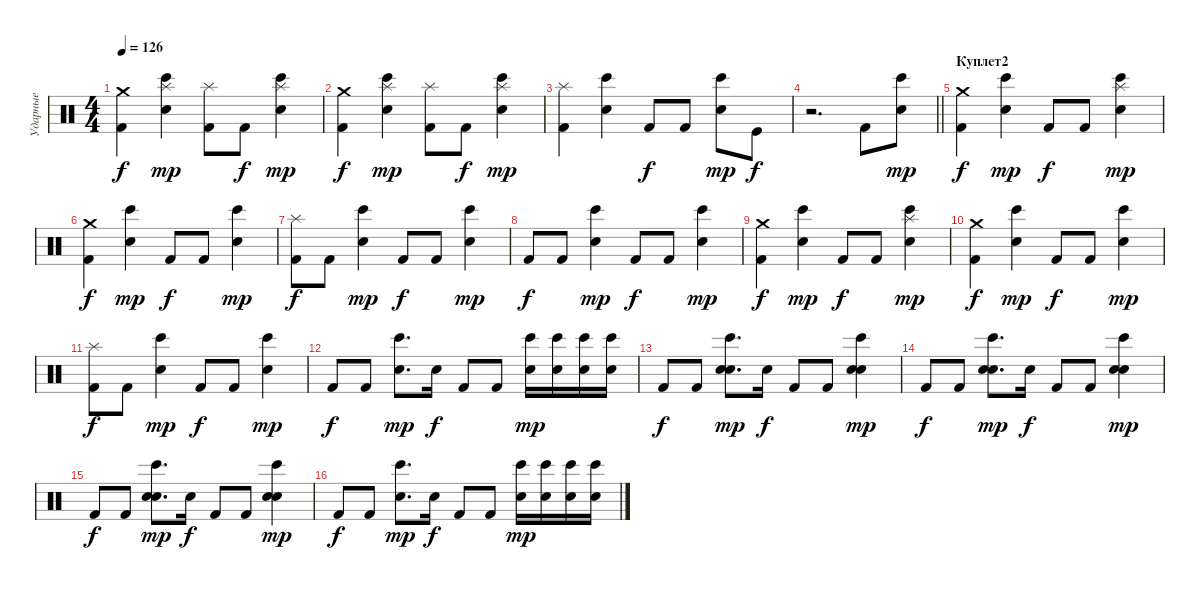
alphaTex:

\track ("Ударные" "Ударные") {instrument percussion}
\staff {score}
\articulation defaults
\ts (4 4)
\tempo 126
\clef neutral
\ks c
("Crash medium (hit)" "Kick (hit) 2").4{dy f} ("Splash (hit)" "Electric Snare (hit)" "Bongo High (hit)").4{dy mp} ("Splash (hit)" "Kick (hit) 2").8 "Kick (hit) 2".8{dy f} ("Splash (hit)" "Electric Snare (hit)" "Bongo High (hit)").4{dy mp} |
("Crash medium (hit)" "Kick (hit) 2").4{dy f} ("Splash (hit)" "Electric Snare (hit)" "Bongo High (hit)").4{dy mp} ("Splash (hit)" "Kick (hit) 2").8 "Kick (hit) 2".8{dy f} ("Splash (hit)" "Electric Snare (hit)" "Bongo High (hit)").4{dy mp} |
("Splash (hit)" "Kick (hit) 2").4 ("Electric Snare (hit)" "Bongo High (hit)").4 "Kick (hit) 2".8{dy f} "Kick (hit) 2".8 ("Electric Snare (hit)" "Bongo High (hit)").8{dy mp} "Kick (hit)".8{dy f} |
\barLineRight lightlight
r.2{d} "Kick (hit) 2".8 ("Electric Snare (hit)" "Bongo High (hit)").8{dy mp} |
\section ("" "Куплет2")
("Crash medium (hit)" "Kick (hit) 2").4{dy f} ("Electric Snare (hit)" "Bongo High (hit)").4{dy mp} "Kick (hit) 2".8{dy f} "Kick (hit) 2".8 ("Splash (hit)" "Electric Snare (hit)" "Bongo High (hit)").4{dy mp} |
("Crash medium (hit)" "Kick (hit) 2").4{dy f} ("Electric Snare (hit)" "Bongo High (hit)").4{dy mp} "Kick (hit) 2".8{dy f} "Kick (hit) 2".8 ("Electric Snare (hit)" "Bongo High (hit)").4{dy mp} |
("Splash (hit)" "Kick (hit) 2").8{dy f} "Kick (hit) 2".8 ("Electric Snare (hit)" "Bongo High (hit)").4{dy mp} "Kick (hit) 2".8{dy f} "Kick (hit) 2".8 ("Electric Snare (hit)" "Bongo High (hit)").4{dy mp} |
"Kick (hit) 2".8{dy f} "Kick (hit) 2".8 ("Electric Snare (hit)" "Bongo High (hit)").4{dy mp} "Kick (hit) 2".8{dy f} "Kick (hit) 2".8 ("Electric Snare (hit)" "Bongo High (hit)").4{dy mp} |
("Crash medium (hit)" "Kick (hit) 2").4{dy f} ("Electric Snare (hit)" "Bongo High (hit)").4{dy mp} "Kick (hit) 2".8{dy f} "Kick (hit) 2".8 ("Splash (hit)" "Electric Snare (hit)" "Bongo High (hit)").4{dy mp} |
("Crash medium (hit)" "Kick (hit) 2").4{dy f} ("Electric Snare (hit)" "Bongo High (hit)").4{dy mp} "Kick (hit) 2".8{dy f} "Kick (hit) 2".8 ("Electric Snare (hit)" "Bongo High (hit)").4{dy mp} |
("Splash (hit)" "Kick (hit) 2").8{dy f} "Kick (hit) 2".8 ("Electric Snare (hit)" "Bongo High (hit)").4{dy mp} "Kick (hit) 2".8{dy f} "Kick (hit) 2".8 ("Electric Snare (hit)" "Bongo High (hit)").4{dy mp} |
"Kick (hit) 2".8{dy f} "Kick (hit) 2".8 ("Electric Snare (hit)" "Bongo High (hit)").8{d dy mp} "Electric Snare (hit)".16{dy f} "Kick (hit) 2".8 "Kick (hit) 2".8 ("Electric Snare (hit)" "Bongo High (hit)").16{dy mp} ("Electric Snare (hit)" "Bongo High (hit)").16 ("Electric Snare (hit)" "Bongo High (hit)").16 ("Electric Snare (hit)" "Bongo High (hit)").16 |
"Kick (hit) 2".8{dy f} "Kick (hit) 2".8 ("Electric Snare (hit)" "Bongo High (hit)" "Snare (hit) 2").8{d dy mp} "Electric Snare (hit)".16{dy f} "Kick (hit) 2".8 "Kick (hit) 2".8 ("Electric Snare (hit)" "Bongo High (hit)" "Snare (hit) 2").4{dy mp} |
"Kick (hit) 2".8{dy f} "Kick (hit) 2".8 ("Electric Snare (hit)" "Bongo High (hit)" "Snare (hit) 2").8{d dy mp} "Electric Snare (hit)".16{dy f} "Kick (hit) 2".8 "Kick (hit) 2".8 ("Electric Snare (hit)" "Bongo High (hit)" "Snare (hit) 2").4{dy mp} |
"Kick (hit) 2".8{dy f} "Kick (hit) 2".8 ("Electric Snare (hit)" "Bongo High (hit)" "Snare (hit) 2").8{d dy mp} "Electric Snare (hit)".16{dy f} "Kick (hit) 2".8 "Kick (hit) 2".8 ("Electric Snare (hit)" "Bongo High (hit)" "Snare (hit) 2").4{dy mp} |
"Kick (hit) 2".8{dy f} "Kick (hit) 2".8 ("Electric Snare (hit)" "Bongo High (hit)").8{d dy mp} "Electric Snare (hit)".16{dy f} "Kick (hit) 2".8 "Kick (hit) 2".8 ("Electric Snare (hit)" "Bongo High (hit)").16{dy mp} ("Electric Snare (hit)" "Bongo High (hit)").16 ("Electric Snare (hit)" "Bongo High (hit)").16 ("Electric Snare (hit)" "Bongo High (hit)").16
